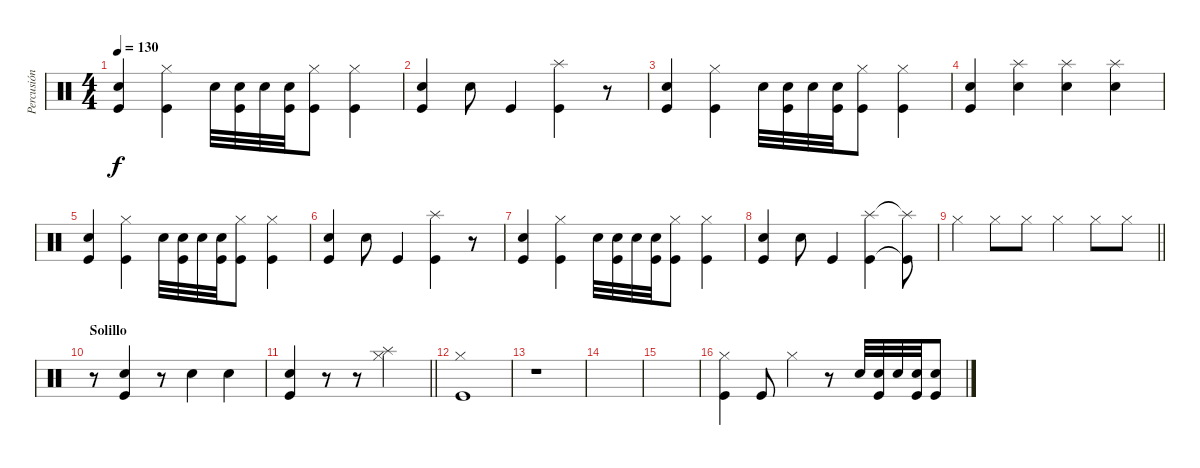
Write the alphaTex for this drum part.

\track ("Percusión" "Percusión") {instrument percussion}
\staff {score}
\articulation defaults
\ts (4 4)
\tempo 130
\clef neutral
\ks c
("Snare (hit) 2" "Kick (hit)").4{dy f} ("Hi-Hat (closed)" "Kick (hit)").4 "Snare (hit) 2".32 ("Snare (hit) 2" "Kick (hit)").32 "Snare (hit) 2".32 ("Snare (hit) 2" "Kick (hit)").32 ("Hi-Hat (closed)" "Kick (hit)").8 ("Hi-Hat (closed)" "Kick (hit)").4 |
("Snare (hit) 2" "Kick (hit)").4 "Snare (hit) 2".8 "Kick (hit)".4 ("Splash (hit)" "Kick (hit)").4 r.8 |
("Snare (hit) 2" "Kick (hit)").4 ("Hi-Hat (closed)" "Kick (hit)").4 "Snare (hit) 2".32 ("Snare (hit) 2" "Kick (hit)").32 "Snare (hit) 2".32 ("Snare (hit) 2" "Kick (hit)").32 ("Hi-Hat (closed)" "Kick (hit)").8 ("Hi-Hat (closed)" "Kick (hit)").4 |
("Snare (hit) 2" "Kick (hit)").4 ("Splash (hit)" "Snare (hit) 2").4 ("Splash (hit)" "Snare (hit) 2").4 ("Splash (hit)" "Snare (hit) 2").4 |
("Snare (hit) 2" "Kick (hit)").4 ("Hi-Hat (closed)" "Kick (hit)").4 "Snare (hit) 2".32 ("Snare (hit) 2" "Kick (hit)").32 "Snare (hit) 2".32 ("Snare (hit) 2" "Kick (hit)").32 ("Hi-Hat (closed)" "Kick (hit)").8 ("Hi-Hat (closed)" "Kick (hit)").4 |
("Snare (hit) 2" "Kick (hit)").4 "Snare (hit) 2".8 "Kick (hit)".4 ("Splash (hit)" "Kick (hit)").4 r.8 |
("Snare (hit) 2" "Kick (hit)").4 ("Hi-Hat (closed)" "Kick (hit)").4 "Snare (hit) 2".32 ("Snare (hit) 2" "Kick (hit)").32 "Snare (hit) 2".32 ("Snare (hit) 2" "Kick (hit)").32 ("Hi-Hat (closed)" "Kick (hit)").8 ("Hi-Hat (closed)" "Kick (hit)").4 |
("Snare (hit) 2" "Kick (hit)").4 "Snare (hit) 2".8 "Kick (hit)".4 ("Splash (hit)" "Kick (hit)").4 ("Splash (hit)"{t} "Kick (hit)"{t}).8 |
\barLineRight lightlight "Hi-Hat (closed)".4 "Hi-Hat (closed)".8 "Hi-Hat (closed)".8 "Hi-Hat (closed)".4 "Hi-Hat (closed)".8 "Hi-Hat (closed)".8
|
\section ("" "Solillo")
r.8 ("Snare (hit) 2" "Kick (hit)").4 r.8 "Snare (hit) 2".4 "Snare (hit) 2".4 |
\barLineRight lightlight
("Snare (hit) 2" "Kick (hit)").4 r.8 r.8 ("Splash (hit)" "Hi-Hat (closed)").2 |
\section ("" "")
("Hi-Hat (closed)" "Kick (hit)").1 |
r.1 |
|
|
("Hi-Hat (closed)" "Kick (hit)").4 "Kick (hit)".8 "Hi-Hat (closed)".4 r.8 "Snare (hit) 2".32 ("Snare (hit) 2" "Kick (hit)").32 "Snare (hit) 2".32 ("Snare (hit) 2" "Kick (hit)").32 ("Snare (hit) 2" "Kick (hit)").8
